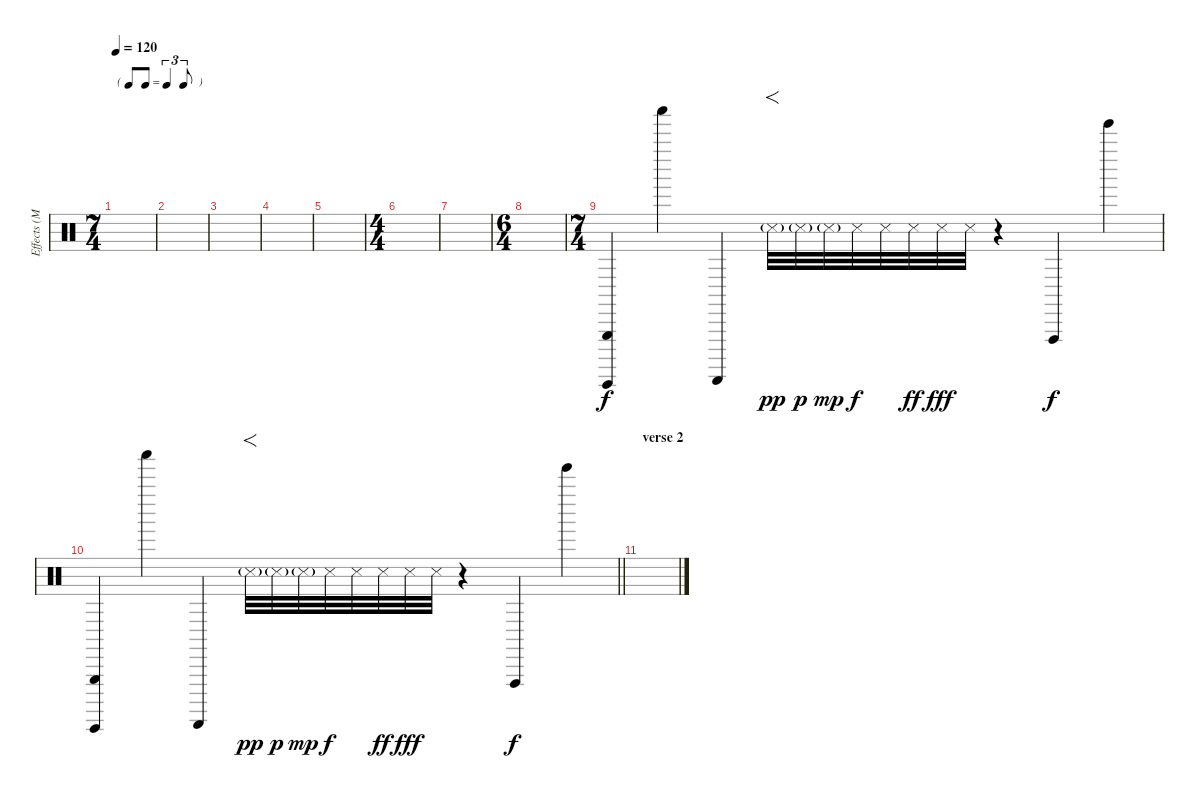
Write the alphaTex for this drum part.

\track ("Effects (Mason/Waters)" "Effects (M") {instrument percussion}
\staff {score}
\articulation defaults
\ts (7 4)
\tf triplet8th
\tempo 120
\clef neutral
\ks c
|
|
|
|
|
\ts (4 4)
|
|
\ts (6 4)
|
\ts (7 4)
("Triangle (hit)" "Guiro (hit)").4 "Shaker (hit)".4 "Guiro (scrap-return)".4 "Snare (side stick) 3"{g}.32{f dy pp} "Snare (side stick) 3"{g}.32{dy p} "Snare (side stick) 3"{g}.32{dy mp} "Snare (side stick) 3".32{dy f} "Snare (side stick) 3".32 "Snare (side stick) 3".32{dy ff} "Snare (side stick) 3".32{dy fff} "Snare (side stick) 3".32 r.4 "Vibraslap (hit)".4{dy f} "Tinkle Bell (hit)".4 |
\barLineRight lightlight
("Triangle (hit)" "Guiro (hit)").4 "Shaker (hit)".4 "Guiro (scrap-return)".4 "Snare (side stick) 3"{g}.32{f dy pp} "Snare (side stick) 3"{g}.32{dy p} "Snare (side stick) 3"{g}.32{dy mp} "Snare (side stick) 3".32{dy f} "Snare (side stick) 3".32 "Snare (side stick) 3".32{dy ff} "Snare (side stick) 3".32{dy fff} "Snare (side stick) 3".32 r.4 "Vibraslap (hit)".4{dy f} "Tinkle Bell (hit)".4 |
\section ("" "verse 2")
